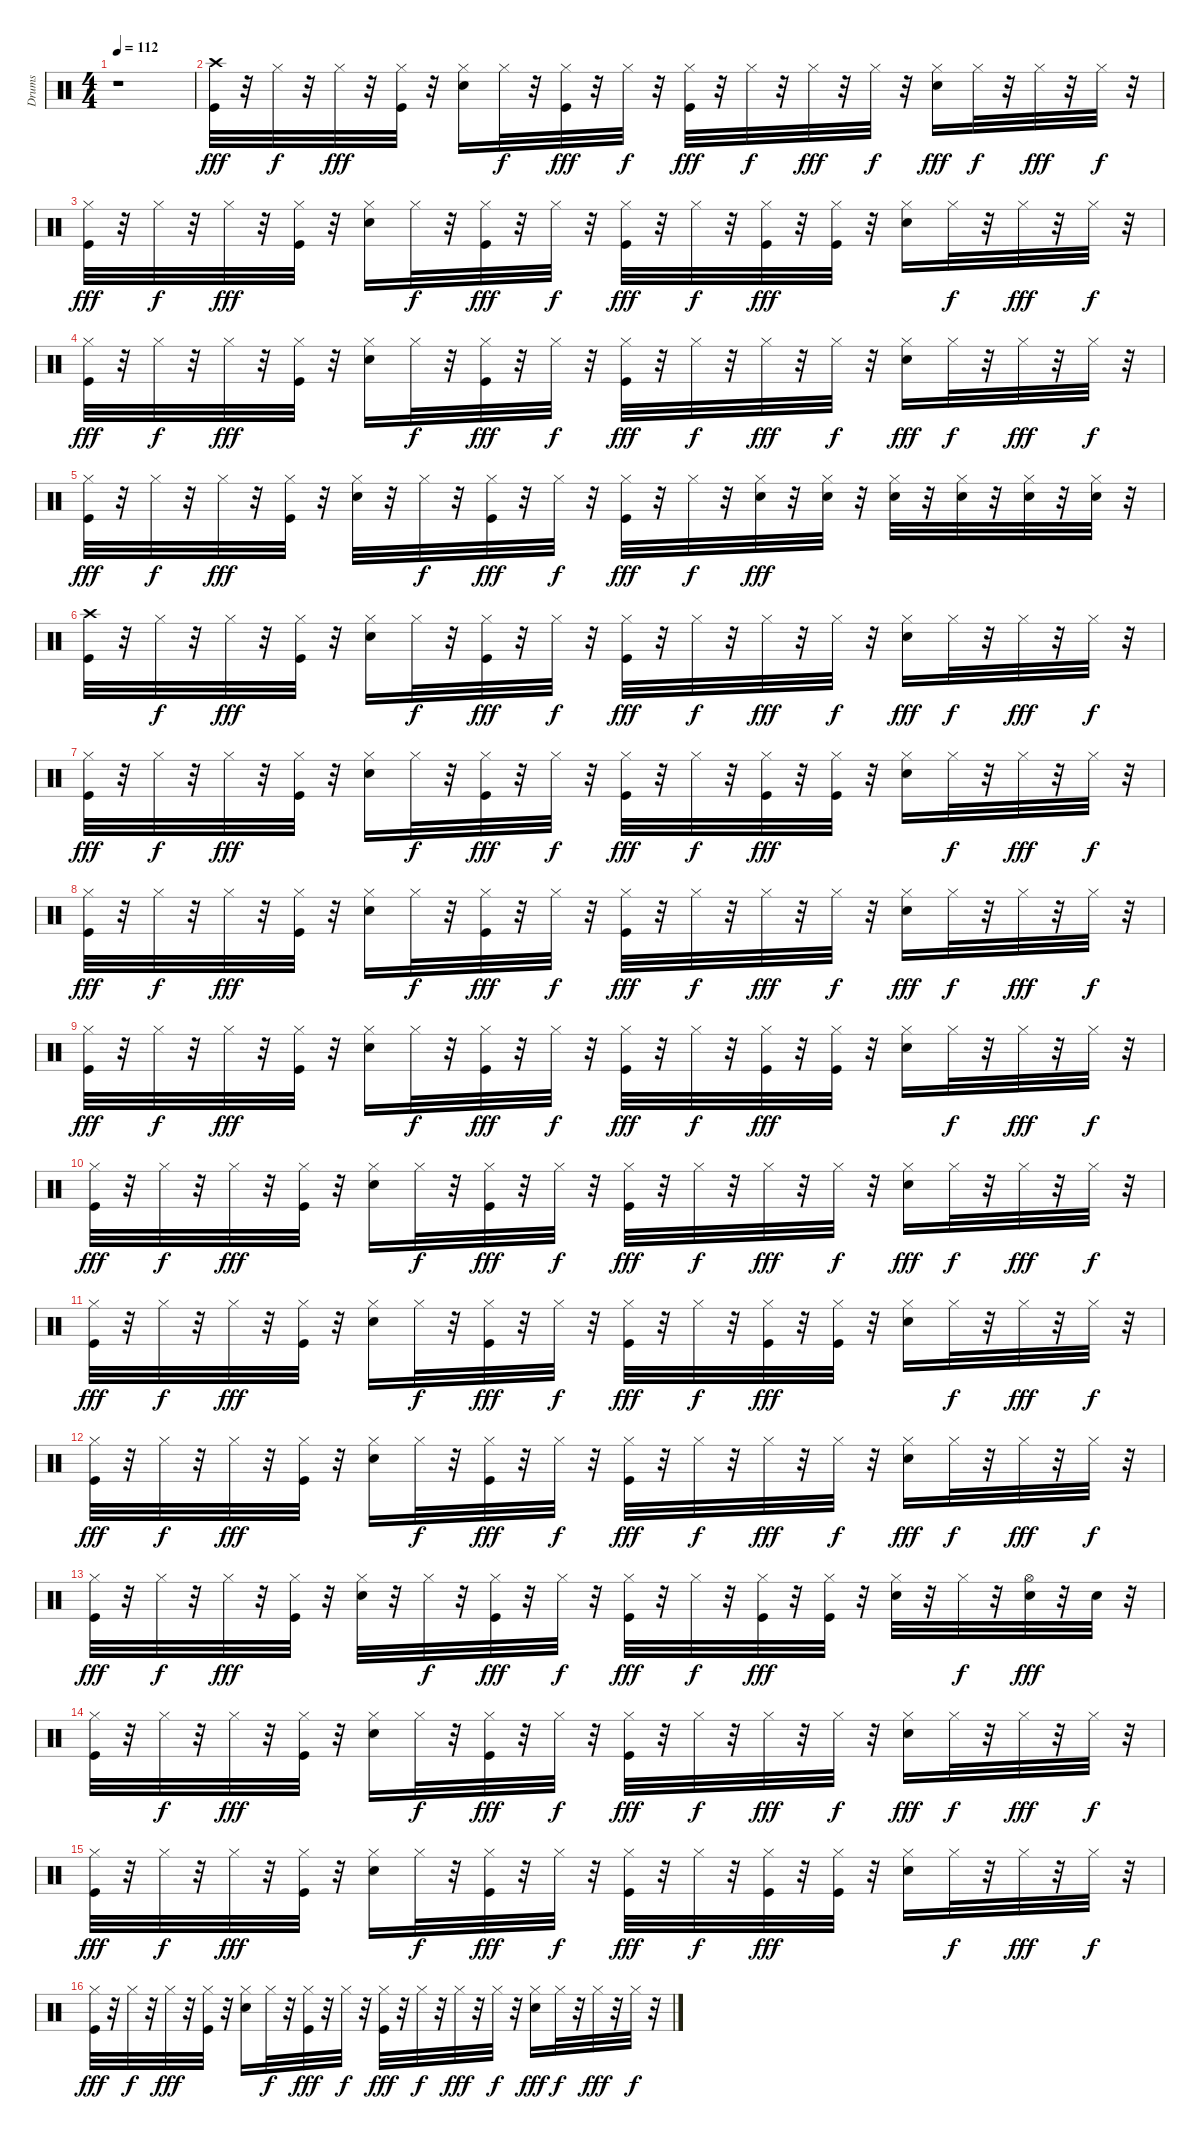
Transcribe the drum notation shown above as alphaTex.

\track ("Drums" "Drums") {instrument percussion}
\staff {score}
\articulation defaults
\ts (4 4)
\tempo 112
\clef neutral
\ks c
r.1{dy fff} |
("Kick (hit)" "Crash high (hit)").32 r.32 "Hi-Hat (closed)".32{dy f} r.32 "Hi-Hat (closed)".32{dy fff} r.32 ("Kick (hit)" "Hi-Hat (closed)").32 r.32 ("Snare (hit) 2" "Hi-Hat (closed)").16 "Hi-Hat (closed)".32{dy f} r.32 ("Kick (hit)" "Hi-Hat (closed)").32{dy fff} r.32 "Hi-Hat (closed)".32{dy f} r.32 ("Kick (hit)" "Hi-Hat (closed)").32{dy fff} r.32 "Hi-Hat (closed)".32{dy f} r.32 "Hi-Hat (closed)".32{dy fff} r.32 "Hi-Hat (closed)".32{dy f} r.32 ("Snare (hit) 2" "Hi-Hat (closed)").16{dy fff} "Hi-Hat (closed)".32{dy f} r.32 "Hi-Hat (closed)".32{dy fff} r.32 "Hi-Hat (closed)".32{dy f} r.32 |
("Kick (hit)" "Hi-Hat (closed)").32{dy fff} r.32 "Hi-Hat (closed)".32{dy f} r.32 "Hi-Hat (closed)".32{dy fff} r.32 ("Kick (hit)" "Hi-Hat (closed)").32 r.32 ("Snare (hit) 2" "Hi-Hat (closed)").16 "Hi-Hat (closed)".32{dy f} r.32 ("Kick (hit)" "Hi-Hat (closed)").32{dy fff} r.32 "Hi-Hat (closed)".32{dy f} r.32 ("Kick (hit)" "Hi-Hat (closed)").32{dy fff} r.32 "Hi-Hat (closed)".32{dy f} r.32 ("Kick (hit)" "Hi-Hat (closed)").32{dy fff} r.32 ("Kick (hit)" "Hi-Hat (closed)").32 r.32 ("Snare (hit) 2" "Hi-Hat (closed)").16 "Hi-Hat (closed)".32{dy f} r.32 "Hi-Hat (closed)".32{dy fff} r.32 "Hi-Hat (closed)".32{dy f} r.32 |
("Kick (hit)" "Hi-Hat (closed)").32{dy fff} r.32 "Hi-Hat (closed)".32{dy f} r.32 "Hi-Hat (closed)".32{dy fff} r.32 ("Kick (hit)" "Hi-Hat (closed)").32 r.32 ("Snare (hit) 2" "Hi-Hat (closed)").16 "Hi-Hat (closed)".32{dy f} r.32 ("Kick (hit)" "Hi-Hat (closed)").32{dy fff} r.32 "Hi-Hat (closed)".32{dy f} r.32 ("Kick (hit)" "Hi-Hat (closed)").32{dy fff} r.32 "Hi-Hat (closed)".32{dy f} r.32 "Hi-Hat (closed)".32{dy fff} r.32 "Hi-Hat (closed)".32{dy f} r.32 ("Snare (hit) 2" "Hi-Hat (closed)").16{dy fff} "Hi-Hat (closed)".32{dy f} r.32 "Hi-Hat (closed)".32{dy fff} r.32 "Hi-Hat (closed)".32{dy f} r.32 |
("Kick (hit)" "Hi-Hat (closed)").32{dy fff} r.32 "Hi-Hat (closed)".32{dy f} r.32 "Hi-Hat (closed)".32{dy fff} r.32 ("Kick (hit)" "Hi-Hat (closed)").32 r.32 ("Snare (hit) 2" "Hi-Hat (closed)").32 r.32 "Hi-Hat (closed)".32{dy f} r.32 ("Kick (hit)" "Hi-Hat (closed)").32{dy fff} r.32 "Hi-Hat (closed)".32{dy f} r.32 ("Kick (hit)" "Hi-Hat (closed)").32{dy fff} r.32 "Hi-Hat (closed)".32{dy f} r.32 ("Snare (hit) 2" "Hi-Hat (closed)").32{dy fff} r.32 ("Snare (hit) 2" "Hi-Hat (closed)").32 r.32 ("Snare (hit) 2" "Hi-Hat (closed)").32 r.32 ("Snare (hit) 2" "Hi-Hat (closed)").32 r.32 ("Snare (hit) 2" "Hi-Hat (closed)").32 r.32 ("Snare (hit) 2" "Hi-Hat (closed)").32 r.32 |
("Kick (hit)" "Crash high (hit)").32 r.32 "Hi-Hat (closed)".32{dy f} r.32 "Hi-Hat (closed)".32{dy fff} r.32 ("Kick (hit)" "Hi-Hat (closed)").32 r.32 ("Snare (hit) 2" "Hi-Hat (closed)").16 "Hi-Hat (closed)".32{dy f} r.32 ("Kick (hit)" "Hi-Hat (closed)").32{dy fff} r.32 "Hi-Hat (closed)".32{dy f} r.32 ("Kick (hit)" "Hi-Hat (closed)").32{dy fff} r.32 "Hi-Hat (closed)".32{dy f} r.32 "Hi-Hat (closed)".32{dy fff} r.32 "Hi-Hat (closed)".32{dy f} r.32 ("Snare (hit) 2" "Hi-Hat (closed)").16{dy fff} "Hi-Hat (closed)".32{dy f} r.32 "Hi-Hat (closed)".32{dy fff} r.32 "Hi-Hat (closed)".32{dy f} r.32 |
("Kick (hit)" "Hi-Hat (closed)").32{dy fff} r.32 "Hi-Hat (closed)".32{dy f} r.32 "Hi-Hat (closed)".32{dy fff} r.32 ("Kick (hit)" "Hi-Hat (closed)").32 r.32 ("Snare (hit) 2" "Hi-Hat (closed)").16 "Hi-Hat (closed)".32{dy f} r.32 ("Kick (hit)" "Hi-Hat (closed)").32{dy fff} r.32 "Hi-Hat (closed)".32{dy f} r.32 ("Kick (hit)" "Hi-Hat (closed)").32{dy fff} r.32 "Hi-Hat (closed)".32{dy f} r.32 ("Kick (hit)" "Hi-Hat (closed)").32{dy fff} r.32 ("Kick (hit)" "Hi-Hat (closed)").32 r.32 ("Snare (hit) 2" "Hi-Hat (closed)").16 "Hi-Hat (closed)".32{dy f} r.32 "Hi-Hat (closed)".32{dy fff} r.32 "Hi-Hat (closed)".32{dy f} r.32 |
("Kick (hit)" "Hi-Hat (closed)").32{dy fff} r.32 "Hi-Hat (closed)".32{dy f} r.32 "Hi-Hat (closed)".32{dy fff} r.32 ("Kick (hit)" "Hi-Hat (closed)").32 r.32 ("Snare (hit) 2" "Hi-Hat (closed)").16 "Hi-Hat (closed)".32{dy f} r.32 ("Kick (hit)" "Hi-Hat (closed)").32{dy fff} r.32 "Hi-Hat (closed)".32{dy f} r.32 ("Kick (hit)" "Hi-Hat (closed)").32{dy fff} r.32 "Hi-Hat (closed)".32{dy f} r.32 "Hi-Hat (closed)".32{dy fff} r.32 "Hi-Hat (closed)".32{dy f} r.32 ("Snare (hit) 2" "Hi-Hat (closed)").16{dy fff} "Hi-Hat (closed)".32{dy f} r.32 "Hi-Hat (closed)".32{dy fff} r.32 "Hi-Hat (closed)".32{dy f} r.32 |
("Kick (hit)" "Hi-Hat (closed)").32{dy fff} r.32 "Hi-Hat (closed)".32{dy f} r.32 "Hi-Hat (closed)".32{dy fff} r.32 ("Kick (hit)" "Hi-Hat (closed)").32 r.32 ("Snare (hit) 2" "Hi-Hat (closed)").16 "Hi-Hat (closed)".32{dy f} r.32 ("Kick (hit)" "Hi-Hat (closed)").32{dy fff} r.32 "Hi-Hat (closed)".32{dy f} r.32 ("Kick (hit)" "Hi-Hat (closed)").32{dy fff} r.32 "Hi-Hat (closed)".32{dy f} r.32 ("Kick (hit)" "Hi-Hat (closed)").32{dy fff} r.32 ("Kick (hit)" "Hi-Hat (closed)").32 r.32 ("Snare (hit) 2" "Hi-Hat (closed)").16 "Hi-Hat (closed)".32{dy f} r.32 "Hi-Hat (closed)".32{dy fff} r.32 "Hi-Hat (closed)".32{dy f} r.32 |
("Kick (hit)" "Hi-Hat (closed)").32{dy fff} r.32 "Hi-Hat (closed)".32{dy f} r.32 "Hi-Hat (closed)".32{dy fff} r.32 ("Kick (hit)" "Hi-Hat (closed)").32 r.32 ("Snare (hit) 2" "Hi-Hat (closed)").16 "Hi-Hat (closed)".32{dy f} r.32 ("Kick (hit)" "Hi-Hat (closed)").32{dy fff} r.32 "Hi-Hat (closed)".32{dy f} r.32 ("Kick (hit)" "Hi-Hat (closed)").32{dy fff} r.32 "Hi-Hat (closed)".32{dy f} r.32 "Hi-Hat (closed)".32{dy fff} r.32 "Hi-Hat (closed)".32{dy f} r.32 ("Snare (hit) 2" "Hi-Hat (closed)").16{dy fff} "Hi-Hat (closed)".32{dy f} r.32 "Hi-Hat (closed)".32{dy fff} r.32 "Hi-Hat (closed)".32{dy f} r.32 |
("Kick (hit)" "Hi-Hat (closed)").32{dy fff} r.32 "Hi-Hat (closed)".32{dy f} r.32 "Hi-Hat (closed)".32{dy fff} r.32 ("Kick (hit)" "Hi-Hat (closed)").32 r.32 ("Snare (hit) 2" "Hi-Hat (closed)").16 "Hi-Hat (closed)".32{dy f} r.32 ("Kick (hit)" "Hi-Hat (closed)").32{dy fff} r.32 "Hi-Hat (closed)".32{dy f} r.32 ("Kick (hit)" "Hi-Hat (closed)").32{dy fff} r.32 "Hi-Hat (closed)".32{dy f} r.32 ("Kick (hit)" "Hi-Hat (closed)").32{dy fff} r.32 ("Kick (hit)" "Hi-Hat (closed)").32 r.32 ("Snare (hit) 2" "Hi-Hat (closed)").16 "Hi-Hat (closed)".32{dy f} r.32 "Hi-Hat (closed)".32{dy fff} r.32 "Hi-Hat (closed)".32{dy f} r.32 |
("Kick (hit)" "Hi-Hat (closed)").32{dy fff} r.32 "Hi-Hat (closed)".32{dy f} r.32 "Hi-Hat (closed)".32{dy fff} r.32 ("Kick (hit)" "Hi-Hat (closed)").32 r.32 ("Snare (hit) 2" "Hi-Hat (closed)").16 "Hi-Hat (closed)".32{dy f} r.32 ("Kick (hit)" "Hi-Hat (closed)").32{dy fff} r.32 "Hi-Hat (closed)".32{dy f} r.32 ("Kick (hit)" "Hi-Hat (closed)").32{dy fff} r.32 "Hi-Hat (closed)".32{dy f} r.32 "Hi-Hat (closed)".32{dy fff} r.32 "Hi-Hat (closed)".32{dy f} r.32 ("Snare (hit) 2" "Hi-Hat (closed)").16{dy fff} "Hi-Hat (closed)".32{dy f} r.32 "Hi-Hat (closed)".32{dy fff} r.32 "Hi-Hat (closed)".32{dy f} r.32 |
("Kick (hit)" "Hi-Hat (closed)").32{dy fff} r.32 "Hi-Hat (closed)".32{dy f} r.32 "Hi-Hat (closed)".32{dy fff} r.32 ("Kick (hit)" "Hi-Hat (closed)").32 r.32 ("Snare (hit) 2" "Hi-Hat (closed)").32 r.32 "Hi-Hat (closed)".32{dy f} r.32 ("Kick (hit)" "Hi-Hat (closed)").32{dy fff} r.32 "Hi-Hat (closed)".32{dy f} r.32 ("Kick (hit)" "Hi-Hat (closed)").32{dy fff} r.32 "Hi-Hat (closed)".32{dy f} r.32 ("Kick (hit)" "Hi-Hat (closed)").32{dy fff} r.32 ("Kick (hit)" "Hi-Hat (closed)").32 r.32 ("Snare (hit) 2" "Hi-Hat (closed)").32 r.32 "Hi-Hat (closed)".32{dy f} r.32 ("Snare (hit) 2" "Hi-Hat (open)").32{dy fff} r.32 "Snare (hit) 2".32 r.32 |
("Kick (hit)" "Hi-Hat (closed)").32 r.32 "Hi-Hat (closed)".32{dy f} r.32 "Hi-Hat (closed)".32{dy fff} r.32 ("Kick (hit)" "Hi-Hat (closed)").32 r.32 ("Snare (hit) 2" "Hi-Hat (closed)").16 "Hi-Hat (closed)".32{dy f} r.32 ("Kick (hit)" "Hi-Hat (closed)").32{dy fff} r.32 "Hi-Hat (closed)".32{dy f} r.32 ("Kick (hit)" "Hi-Hat (closed)").32{dy fff} r.32 "Hi-Hat (closed)".32{dy f} r.32 "Hi-Hat (closed)".32{dy fff} r.32 "Hi-Hat (closed)".32{dy f} r.32 ("Snare (hit) 2" "Hi-Hat (closed)").16{dy fff} "Hi-Hat (closed)".32{dy f} r.32 "Hi-Hat (closed)".32{dy fff} r.32 "Hi-Hat (closed)".32{dy f} r.32 |
("Kick (hit)" "Hi-Hat (closed)").32{dy fff} r.32 "Hi-Hat (closed)".32{dy f} r.32 "Hi-Hat (closed)".32{dy fff} r.32 ("Kick (hit)" "Hi-Hat (closed)").32 r.32 ("Snare (hit) 2" "Hi-Hat (closed)").16 "Hi-Hat (closed)".32{dy f} r.32 ("Kick (hit)" "Hi-Hat (closed)").32{dy fff} r.32 "Hi-Hat (closed)".32{dy f} r.32 ("Kick (hit)" "Hi-Hat (closed)").32{dy fff} r.32 "Hi-Hat (closed)".32{dy f} r.32 ("Kick (hit)" "Hi-Hat (closed)").32{dy fff} r.32 ("Kick (hit)" "Hi-Hat (closed)").32 r.32 ("Snare (hit) 2" "Hi-Hat (closed)").16 "Hi-Hat (closed)".32{dy f} r.32 "Hi-Hat (closed)".32{dy fff} r.32 "Hi-Hat (closed)".32{dy f} r.32 |
("Kick (hit)" "Hi-Hat (closed)").32{dy fff} r.32 "Hi-Hat (closed)".32{dy f} r.32 "Hi-Hat (closed)".32{dy fff} r.32 ("Kick (hit)" "Hi-Hat (closed)").32 r.32 ("Snare (hit) 2" "Hi-Hat (closed)").16 "Hi-Hat (closed)".32{dy f} r.32 ("Kick (hit)" "Hi-Hat (closed)").32{dy fff} r.32 "Hi-Hat (closed)".32{dy f} r.32 ("Kick (hit)" "Hi-Hat (closed)").32{dy fff} r.32 "Hi-Hat (closed)".32{dy f} r.32 "Hi-Hat (closed)".32{dy fff} r.32 "Hi-Hat (closed)".32{dy f} r.32 ("Snare (hit) 2" "Hi-Hat (closed)").16{dy fff} "Hi-Hat (closed)".32{dy f} r.32 "Hi-Hat (closed)".32{dy fff} r.32 "Hi-Hat (closed)".32{dy f} r.32
